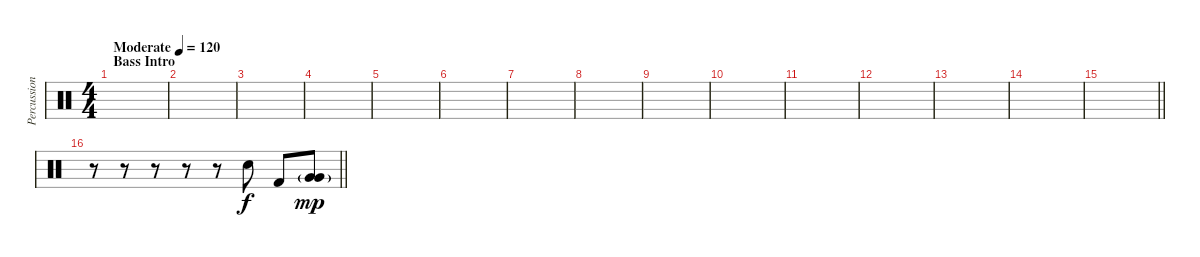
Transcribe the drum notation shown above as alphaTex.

\track ("Percussion" "Percussion") {instrument percussion}
\staff {score}
\articulation defaults
\ts (4 4)
\section ("" "Bass Intro")
\tempo (120 "Moderate")
\clef neutral
\ks c
|
|
|
|
|
|
|
|
|
|
|
|
|
|
\barLineRight lightlight
|
\barLineRight lightlight
r.8 r.8 r.8 r.8 r.8 "Electric Snare (hit)".8 "Kick (hit) 2".8 ("Very Low Tom (hit)"{g} "Very Low Tom (hit)"{g}).8{dy mp}
